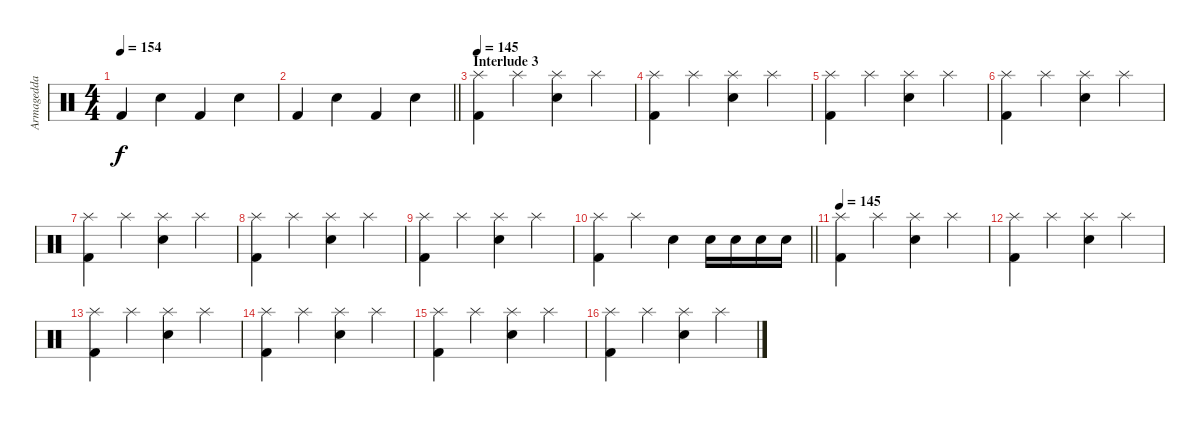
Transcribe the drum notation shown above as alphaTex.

\track ("Armagedda" "Armagedda") {instrument percussion}
\staff {score}
\articulation defaults
\ts (4 4)
\tempo 154
\clef neutral
\ks c "Kick (hit) 2".4{dy f} "Snare (hit) 2".4 "Kick (hit) 2".4 "Snare (hit) 2".4
|
\barLineRight lightlight "Kick (hit) 2".4 "Snare (hit) 2".4 "Kick (hit) 2".4 "Snare (hit) 2".4
|
\section ("" "Interlude 3")
\tempo 145
("Splash (hit)" "Kick (hit) 2").4 "Splash (hit)".4 ("Splash (hit)" "Snare (hit) 2").4 "Splash (hit)".4 |
("Splash (hit)" "Kick (hit) 2").4 "Splash (hit)".4 ("Splash (hit)" "Snare (hit) 2").4 "Splash (hit)".4 |
("Splash (hit)" "Kick (hit) 2").4 "Splash (hit)".4 ("Splash (hit)" "Snare (hit) 2").4 "Splash (hit)".4 |
("Splash (hit)" "Kick (hit) 2").4 "Splash (hit)".4 ("Splash (hit)" "Snare (hit) 2").4 "Splash (hit)".4 |
("Splash (hit)" "Kick (hit) 2").4 "Splash (hit)".4 ("Splash (hit)" "Snare (hit) 2").4 "Splash (hit)".4 |
("Splash (hit)" "Kick (hit) 2").4 "Splash (hit)".4 ("Splash (hit)" "Snare (hit) 2").4 "Splash (hit)".4 |
("Splash (hit)" "Kick (hit) 2").4 "Splash (hit)".4 ("Splash (hit)" "Snare (hit) 2").4 "Splash (hit)".4 |
\barLineRight lightlight
("Splash (hit)" "Kick (hit) 2").4 "Splash (hit)".4 "Snare (hit) 2".4 "Snare (hit) 2".16 "Snare (hit) 2".16 "Snare (hit) 2".16 "Snare (hit) 2".16 |
\tempo 145
("Splash (hit)" "Kick (hit) 2").4 "Splash (hit)".4 ("Splash (hit)" "Snare (hit) 2").4 "Splash (hit)".4 |
("Splash (hit)" "Kick (hit) 2").4 "Splash (hit)".4 ("Splash (hit)" "Snare (hit) 2").4 "Splash (hit)".4 |
("Splash (hit)" "Kick (hit) 2").4 "Splash (hit)".4 ("Splash (hit)" "Snare (hit) 2").4 "Splash (hit)".4 |
("Splash (hit)" "Kick (hit) 2").4 "Splash (hit)".4 ("Splash (hit)" "Snare (hit) 2").4 "Splash (hit)".4 |
("Splash (hit)" "Kick (hit) 2").4 "Splash (hit)".4 ("Splash (hit)" "Snare (hit) 2").4 "Splash (hit)".4 |
("Splash (hit)" "Kick (hit) 2").4 "Splash (hit)".4 ("Splash (hit)" "Snare (hit) 2").4 "Splash (hit)".4
